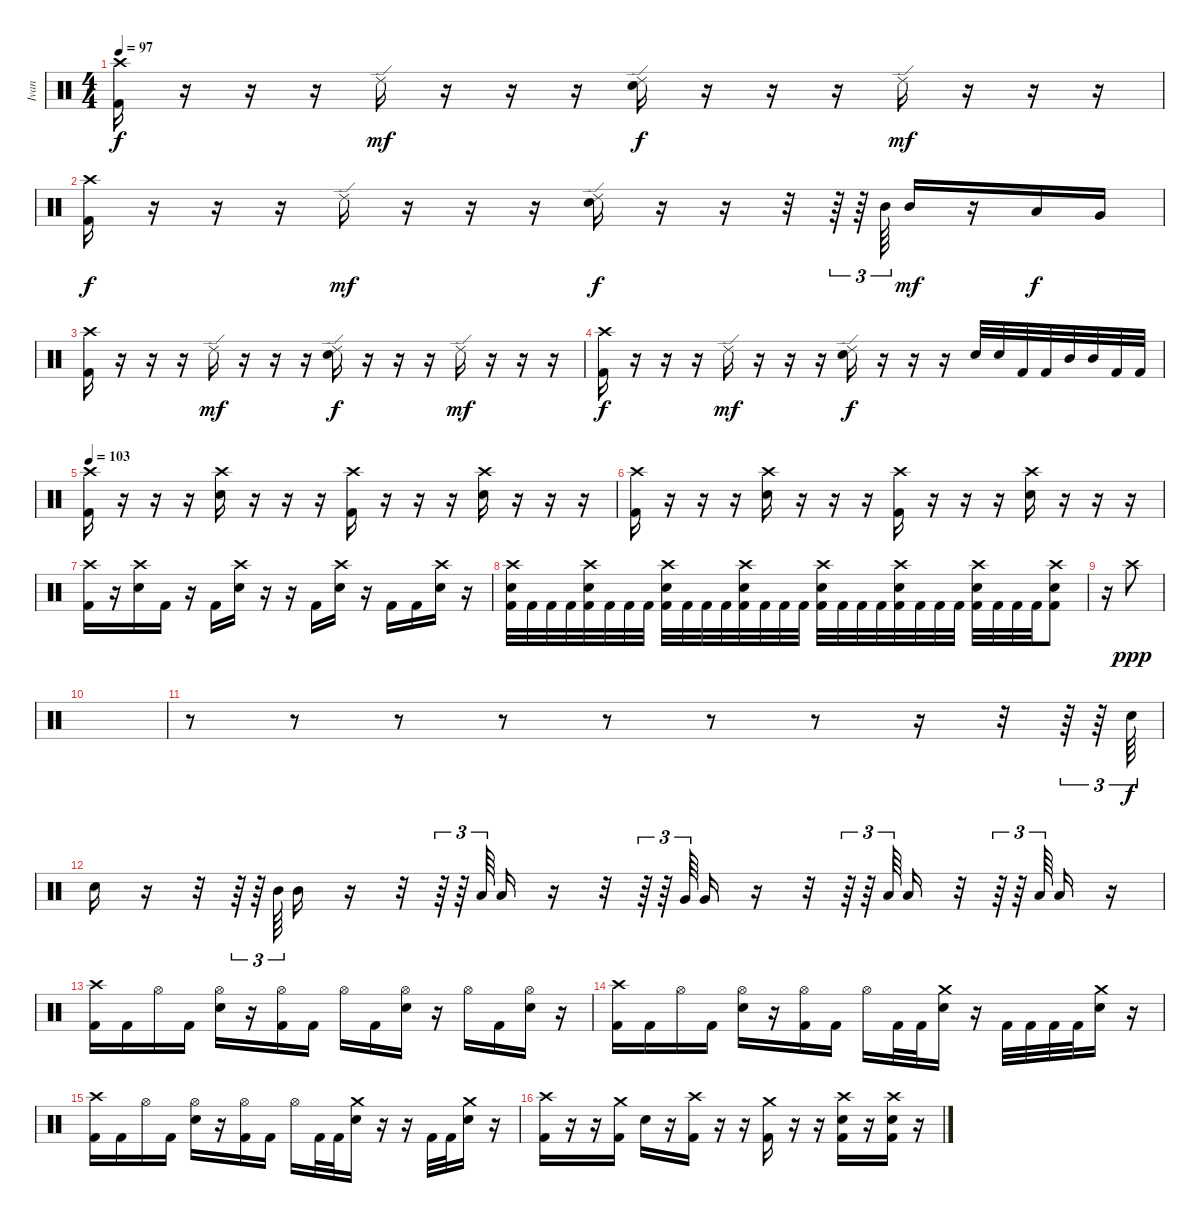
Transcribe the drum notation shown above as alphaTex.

\track ("Ivan" "Ivan") {instrument percussion}
\staff {score}
\articulation defaults
\ts (4 4)
\tempo 97
\clef neutral
\ks c
("Crash high (hit)" "Kick (hit) 2").16{dy f} r.16 r.16 r.16 "Ride (edge) 2".16{dy mf} r.16 r.16 r.16 ("Ride (edge) 2" "Snare (hit) 2").16{dy f} r.16 r.16 r.16 "Ride (edge) 2".16{dy mf} r.16 r.16 r.16 |
("Crash high (hit)" "Kick (hit) 2").16{dy f} r.16 r.16 r.16 "Ride (edge) 2".16{dy mf} r.16 r.16 r.16 ("Ride (edge) 2" "Snare (hit) 2").16{dy f} r.16 r.16 r.32 r.64{tu (3 2)} r.64{tu (3 2)} "Mid Tom (hit)".64{tu (3 2)} "Mid Tom (hit)".16{dy mf} r.16 "Low Tom (hit)".16{dy f} "Very Low Tom (hit)".16 |
("Crash high (hit)" "Kick (hit) 2").16 r.16 r.16 r.16 "Ride (edge) 2".16{dy mf} r.16 r.16 r.16 ("Ride (edge) 2" "Snare (hit) 2").16{dy f} r.16 r.16 r.16 "Ride (edge) 2".16{dy mf} r.16 r.16 r.16 |
("Crash high (hit)" "Kick (hit) 2").16{dy f} r.16 r.16 r.16 "Ride (edge) 2".16{dy mf} r.16 r.16 r.16 ("Ride (edge) 2" "Snare (hit) 2").16{dy f} r.16 r.16 r.16 "Snare (hit) 2".32 "Snare (hit) 2".32 "Kick (hit) 2".32 "Kick (hit) 2".32 "Mid Tom (hit)".32 "Mid Tom (hit)".32 "Kick (hit) 2".32 "Kick (hit) 2".32 |
\tempo 103
("Crash high (hit)" "Kick (hit) 2").16 r.16 r.16 r.16 ("Crash high (hit)" "Snare (hit) 2").16 r.16 r.16 r.16 ("Crash high (hit)" "Kick (hit) 2").16 r.16 r.16 r.16 ("Crash high (hit)" "Snare (hit) 2").16 r.16 r.16 r.16 |
("Crash high (hit)" "Kick (hit) 2").16 r.16 r.16 r.16 ("Crash high (hit)" "Snare (hit) 2").16 r.16 r.16 r.16 ("Crash high (hit)" "Kick (hit) 2").16 r.16 r.16 r.16 ("Crash high (hit)" "Snare (hit) 2").16 r.16 r.16 r.16 |
("Crash high (hit)" "Kick (hit) 2").16 r.16 ("Crash high (hit)" "Snare (hit) 2").16 "Kick (hit) 2".16 r.16 "Kick (hit) 2".16 ("Crash high (hit)" "Snare (hit) 2").16 r.16 r.16 "Kick (hit) 2".16 ("Crash high (hit)" "Snare (hit) 2").16 r.16 "Kick (hit) 2".16 "Kick (hit) 2".16 ("Crash high (hit)" "Snare (hit) 2").16 r.16 |
("Kick (hit) 2" "Snare (hit) 2" "Crash high (hit)").32 "Kick (hit) 2".32 "Kick (hit) 2".32 "Kick (hit) 2".32 ("Kick (hit) 2" "Snare (hit) 2" "Crash high (hit)").32 "Kick (hit) 2".32 "Kick (hit) 2".32 "Kick (hit) 2".32 ("Kick (hit) 2" "Snare (hit) 2" "Crash high (hit)").32 "Kick (hit) 2".32 "Kick (hit) 2".32 "Kick (hit) 2".32 ("Kick (hit) 2" "Snare (hit) 2" "Crash high (hit)").32 "Kick (hit) 2".32 "Kick (hit) 2".32 "Kick (hit) 2".32 ("Kick (hit) 2" "Snare (hit) 2" "Crash high (hit)").32 "Kick (hit) 2".32 "Kick (hit) 2".32 "Kick (hit) 2".32 ("Kick (hit) 2" "Snare (hit) 2" "Crash high (hit)").32 "Kick (hit) 2".32 "Kick (hit) 2".32 "Kick (hit) 2".32 ("Kick (hit) 2" "Snare (hit) 2" "Crash high (hit)").32 "Kick (hit) 2".32 "Kick (hit) 2".32 "Kick (hit) 2".32 ("Kick (hit) 2" "Snare (hit) 2" "Crash high (hit)").8 |
r.16 "Crash high (hit)".8{dy ppp} |
|
r.8 r.8 r.8 r.8 r.8 r.8 r.8 r.16 r.32 r.64{tu (3 2)} r.64{tu (3 2)} "Snare (hit) 2".64{tu (3 2) dy f} |
"Snare (hit) 2".16 r.16 r.32 r.64{tu (3 2)} r.64{tu (3 2)} "Mid Tom (hit)".64{tu (3 2)} "Mid Tom (hit)".16 r.16 r.32 r.64{tu (3 2)} r.64{tu (3 2)} "Low Tom (hit)".64{tu (3 2)} "Low Tom (hit)".16 r.16 r.32 r.64{tu (3 2)} r.64{tu (3 2)} "Very Low Tom (hit)".64{tu (3 2)} "Very Low Tom (hit)".16 r.16 r.32 r.64{tu (3 2)} r.64{tu (3 2)} "Low Floor Tom (hit)".64{tu (3 2)} "Low Floor Tom (hit)".16 r.32 r.64{tu (3 2)} r.64{tu (3 2)} "Low Floor Tom (hit)".64{tu (3 2)} "Low Floor Tom (hit)".16 r.16 |
("Kick (hit) 2" "Crash high (hit)").16 "Kick (hit) 2".16 "Hi-Hat (open)".16 "Kick (hit) 2".16 ("Snare (hit) 2" "Hi-Hat (open)").16 r.16 ("Kick (hit) 2" "Hi-Hat (open)").16 "Kick (hit) 2".16 "Hi-Hat (open)".16 "Kick (hit) 2".16 ("Snare (hit) 2" "Hi-Hat (open)").16 r.16 "Hi-Hat (open)".16 "Kick (hit) 2".16 ("Snare (hit) 2" "Hi-Hat (open)").16 r.16 |
("Crash high (hit)" "Kick (hit) 2").16 "Kick (hit) 2".16 "Hi-Hat (open)".16 "Kick (hit) 2".16 ("Hi-Hat (open)" "Snare (hit) 2").16 r.16 ("Hi-Hat (open)" "Kick (hit) 2").16 "Kick (hit) 2".16 "Hi-Hat (open)".16 "Kick (hit) 2".32 "Kick (hit) 2".32 ("Crash medium (hit)" "Snare (hit) 2").16 r.16 "Kick (hit) 2".32 "Kick (hit) 2".32 "Kick (hit) 2".32 "Kick (hit) 2".32 ("Crash medium (hit)" "Snare (hit) 2").16 r.16 |
("Kick (hit) 2" "Crash high (hit)").16 "Kick (hit) 2".16 "Hi-Hat (open)".16 "Kick (hit) 2".16 ("Snare (hit) 2" "Hi-Hat (open)").16 r.16 ("Kick (hit) 2" "Hi-Hat (open)").16 "Kick (hit) 2".16 "Hi-Hat (open)".16 "Kick (hit) 2".32 "Kick (hit) 2".32 ("Snare (hit) 2" "Crash medium (hit)").16 r.16 r.16 "Kick (hit) 2".32 "Kick (hit) 2".32 ("Snare (hit) 2" "Crash medium (hit)").16 r.16 |
("Kick (hit) 2" "Crash high (hit)").16 r.16 r.16 ("Kick (hit) 2" "Crash medium (hit)").16 "Snare (hit) 2".16 r.16 ("Kick (hit) 2" "Crash high (hit)").16 r.16 r.16 ("Kick (hit) 2" "Crash medium (hit)").16 r.16 r.16 ("Crash high (hit)" "Snare (hit) 2" "Kick (hit) 2").16 r.16 ("Crash high (hit)" "Snare (hit) 2" "Kick (hit) 2").16 r.16
